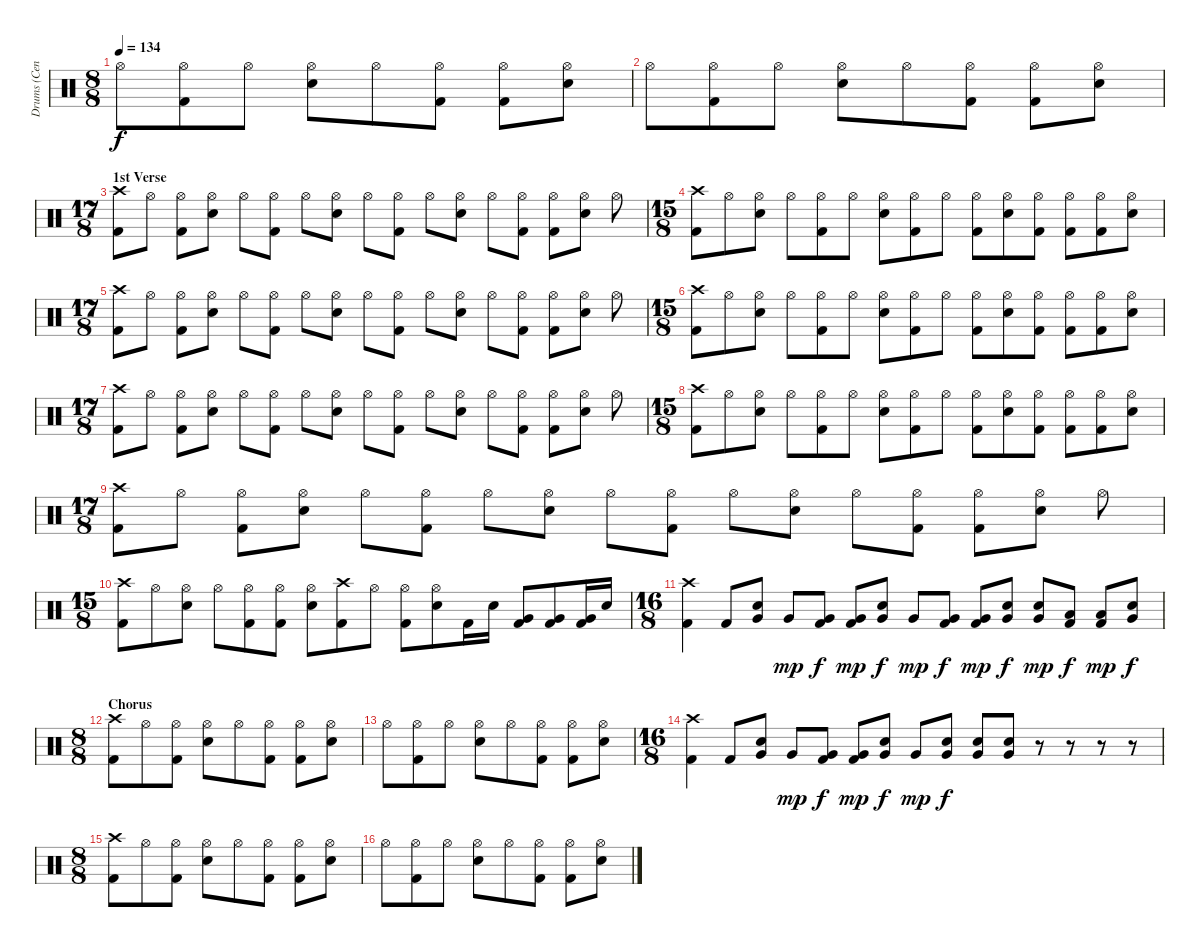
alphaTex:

\track ("Drums (Cenk)" "Drums (Cen") {instrument percussion}
\staff {score}
\articulation defaults
\ts (8 8)
\tempo 134
\clef neutral
\ks c "Hi-Hat (open)".8{dy f}
("Hi-Hat (open)" "Kick (hit) 2").8 "Hi-Hat (open)".8 ("Hi-Hat (open)" "Snare (hit) 2").8 "Hi-Hat (open)".8 ("Hi-Hat (open)" "Kick (hit) 2").8 ("Hi-Hat (open)" "Kick (hit) 2").8 ("Hi-Hat (open)" "Snare (hit) 2").8 |
"Hi-Hat (open)".8 ("Hi-Hat (open)" "Kick (hit) 2").8 "Hi-Hat (open)".8 ("Hi-Hat (open)" "Snare (hit) 2").8 "Hi-Hat (open)".8 ("Hi-Hat (open)" "Kick (hit) 2").8 ("Hi-Hat (open)" "Kick (hit) 2").8 ("Hi-Hat (open)" "Snare (hit) 2").8 |
\ts (17 8)
\section ("" "1st Verse")
("Crash high (hit)" "Kick (hit) 2").8 "Hi-Hat (open)".8 ("Hi-Hat (open)" "Kick (hit) 2").8 ("Hi-Hat (open)" "Snare (hit) 2").8 "Hi-Hat (open)".8 ("Hi-Hat (open)" "Kick (hit) 2").8 "Hi-Hat (open)".8 ("Hi-Hat (open)" "Snare (hit) 2").8 "Hi-Hat (open)".8 ("Hi-Hat (open)" "Kick (hit) 2").8 "Hi-Hat (open)".8 ("Hi-Hat (open)" "Snare (hit) 2").8 "Hi-Hat (open)".8 ("Hi-Hat (open)" "Kick (hit) 2").8 ("Hi-Hat (open)" "Kick (hit) 2").8 ("Hi-Hat (open)" "Snare (hit) 2").8 "Hi-Hat (open)".8 |
\ts (15 8)
("Crash high (hit)" "Kick (hit) 2").8 "Hi-Hat (open)".8 ("Hi-Hat (open)" "Snare (hit) 2").8 "Hi-Hat (open)".8 ("Hi-Hat (open)" "Kick (hit) 2").8 "Hi-Hat (open)".8 ("Hi-Hat (open)" "Snare (hit) 2").8 ("Hi-Hat (open)" "Kick (hit) 2").8 "Hi-Hat (open)".8 ("Hi-Hat (open)" "Kick (hit) 2").8 ("Hi-Hat (open)" "Snare (hit) 2").8 ("Hi-Hat (open)" "Kick (hit) 2").8 ("Hi-Hat (open)" "Kick (hit) 2").8 ("Hi-Hat (open)" "Kick (hit) 2").8 ("Hi-Hat (open)" "Snare (hit) 2").8 |
\ts (17 8)
("Crash high (hit)" "Kick (hit) 2").8 "Hi-Hat (open)".8 ("Hi-Hat (open)" "Kick (hit) 2").8 ("Hi-Hat (open)" "Snare (hit) 2").8 "Hi-Hat (open)".8 ("Hi-Hat (open)" "Kick (hit) 2").8 "Hi-Hat (open)".8 ("Hi-Hat (open)" "Snare (hit) 2").8 "Hi-Hat (open)".8 ("Hi-Hat (open)" "Kick (hit) 2").8 "Hi-Hat (open)".8 ("Hi-Hat (open)" "Snare (hit) 2").8 "Hi-Hat (open)".8 ("Hi-Hat (open)" "Kick (hit) 2").8 ("Hi-Hat (open)" "Kick (hit) 2").8 ("Hi-Hat (open)" "Snare (hit) 2").8 "Hi-Hat (open)".8 |
\ts (15 8)
("Crash high (hit)" "Kick (hit) 2").8 "Hi-Hat (open)".8 ("Hi-Hat (open)" "Snare (hit) 2").8 "Hi-Hat (open)".8 ("Hi-Hat (open)" "Kick (hit) 2").8 "Hi-Hat (open)".8 ("Hi-Hat (open)" "Snare (hit) 2").8 ("Hi-Hat (open)" "Kick (hit) 2").8 "Hi-Hat (open)".8 ("Hi-Hat (open)" "Kick (hit) 2").8 ("Hi-Hat (open)" "Snare (hit) 2").8 ("Hi-Hat (open)" "Kick (hit) 2").8 ("Hi-Hat (open)" "Kick (hit) 2").8 ("Hi-Hat (open)" "Kick (hit) 2").8 ("Hi-Hat (open)" "Snare (hit) 2").8 |
\ts (17 8)
("Crash high (hit)" "Kick (hit) 2").8 "Hi-Hat (open)".8 ("Hi-Hat (open)" "Kick (hit) 2").8 ("Hi-Hat (open)" "Snare (hit) 2").8 "Hi-Hat (open)".8 ("Hi-Hat (open)" "Kick (hit) 2").8 "Hi-Hat (open)".8 ("Hi-Hat (open)" "Snare (hit) 2").8 "Hi-Hat (open)".8 ("Hi-Hat (open)" "Kick (hit) 2").8 "Hi-Hat (open)".8 ("Hi-Hat (open)" "Snare (hit) 2").8 "Hi-Hat (open)".8 ("Hi-Hat (open)" "Kick (hit) 2").8 ("Hi-Hat (open)" "Kick (hit) 2").8 ("Hi-Hat (open)" "Snare (hit) 2").8 "Hi-Hat (open)".8 |
\ts (15 8)
("Crash high (hit)" "Kick (hit) 2").8 "Hi-Hat (open)".8 ("Hi-Hat (open)" "Snare (hit) 2").8 "Hi-Hat (open)".8 ("Hi-Hat (open)" "Kick (hit) 2").8 "Hi-Hat (open)".8 ("Hi-Hat (open)" "Snare (hit) 2").8 ("Hi-Hat (open)" "Kick (hit) 2").8 "Hi-Hat (open)".8 ("Hi-Hat (open)" "Kick (hit) 2").8 ("Hi-Hat (open)" "Snare (hit) 2").8 ("Hi-Hat (open)" "Kick (hit) 2").8 ("Hi-Hat (open)" "Kick (hit) 2").8 ("Hi-Hat (open)" "Kick (hit) 2").8 ("Hi-Hat (open)" "Snare (hit) 2").8 |
\ts (17 8)
("Crash high (hit)" "Kick (hit) 2").8 "Hi-Hat (open)".8 ("Hi-Hat (open)" "Kick (hit) 2").8 ("Hi-Hat (open)" "Snare (hit) 2").8 "Hi-Hat (open)".8 ("Hi-Hat (open)" "Kick (hit) 2").8 "Hi-Hat (open)".8 ("Hi-Hat (open)" "Snare (hit) 2").8 "Hi-Hat (open)".8 ("Hi-Hat (open)" "Kick (hit) 2").8 "Hi-Hat (open)".8 ("Hi-Hat (open)" "Snare (hit) 2").8 "Hi-Hat (open)".8 ("Hi-Hat (open)" "Kick (hit) 2").8 ("Hi-Hat (open)" "Kick (hit) 2").8 ("Hi-Hat (open)" "Snare (hit) 2").8 "Hi-Hat (open)".8 |
\ts (15 8)
("Crash high (hit)" "Kick (hit) 2").8 "Hi-Hat (open)".8 ("Hi-Hat (open)" "Snare (hit) 2").8 "Hi-Hat (open)".8 ("Hi-Hat (open)" "Kick (hit) 2").8 ("Hi-Hat (open)" "Kick (hit) 2").8 ("Hi-Hat (open)" "Snare (hit) 2").8 ("Crash high (hit)" "Kick (hit) 2").8 "Hi-Hat (open)".8 ("Hi-Hat (open)" "Kick (hit) 2").8 ("Hi-Hat (open)" "Snare (hit) 2").8 "Kick (hit) 2".16 "Snare (hit) 2".16 ("Very Low Tom (hit)" "Kick (hit) 2").8 ("Very Low Tom (hit)" "Kick (hit) 2").8 ("Very Low Tom (hit)" "Kick (hit) 2").16 "Snare (hit) 2".16 |
\ts (16 8)
("Crash high (hit)" "Kick (hit) 2").4 "Kick (hit) 2".8 ("Very Low Tom (hit)" "Snare (hit) 2").8 "Very Low Tom (hit)".8{dy mp} ("Very Low Tom (hit)" "Kick (hit) 2").8{dy f} ("Very Low Tom (hit)" "Kick (hit) 2").8{dy mp} ("Very Low Tom (hit)" "Snare (hit) 2").8{dy f} "Very Low Tom (hit)".8{dy mp} ("Very Low Tom (hit)" "Kick (hit) 2").8{dy f} ("Very Low Tom (hit)" "Kick (hit) 2").8{dy mp} ("Very Low Tom (hit)" "Snare (hit) 2").8{dy f} ("Very Low Tom (hit)" "Snare (hit) 2").8{dy mp} ("Low Tom (hit)" "Kick (hit) 2").8{dy f} ("Low Tom (hit)" "Kick (hit) 2").8{dy mp} ("Very Low Tom (hit)" "Snare (hit) 2").8{dy f} |
\ts (8 8)
\section ("" "Chorus")
("Crash high (hit)" "Kick (hit) 2").8 "Hi-Hat (open)".8 ("Hi-Hat (open)" "Kick (hit) 2").8 ("Hi-Hat (open)" "Snare (hit) 2").8 "Hi-Hat (open)".8 ("Hi-Hat (open)" "Kick (hit) 2").8 ("Hi-Hat (open)" "Kick (hit) 2").8 ("Hi-Hat (open)" "Snare (hit) 2").8 |
"Hi-Hat (open)".8 ("Hi-Hat (open)" "Kick (hit) 2").8 "Hi-Hat (open)".8 ("Hi-Hat (open)" "Snare (hit) 2").8 "Hi-Hat (open)".8 ("Hi-Hat (open)" "Kick (hit) 2").8 ("Hi-Hat (open)" "Kick (hit) 2").8 ("Hi-Hat (open)" "Snare (hit) 2").8 |
\ts (16 8)
("Crash high (hit)" "Kick (hit) 2").4 "Kick (hit) 2".8 ("Very Low Tom (hit)" "Snare (hit) 2").8 "Very Low Tom (hit)".8{dy mp} ("Very Low Tom (hit)" "Kick (hit) 2").8{dy f} ("Very Low Tom (hit)" "Kick (hit) 2").8{dy mp} ("Very Low Tom (hit)" "Snare (hit) 2").8{dy f} "Very Low Tom (hit)".8{dy mp} ("Very Low Tom (hit)" "Snare (hit) 2").8{dy f} ("Very Low Tom (hit)" "Snare (hit) 2").8 ("Very Low Tom (hit)" "Snare (hit) 2").8 r.8 r.8 r.8 r.8 |
\ts (8 8)
("Crash high (hit)" "Kick (hit) 2").8 "Hi-Hat (open)".8 ("Hi-Hat (open)" "Kick (hit) 2").8 ("Hi-Hat (open)" "Snare (hit) 2").8 "Hi-Hat (open)".8 ("Hi-Hat (open)" "Kick (hit) 2").8 ("Hi-Hat (open)" "Kick (hit) 2").8 ("Hi-Hat (open)" "Snare (hit) 2").8 |
"Hi-Hat (open)".8 ("Hi-Hat (open)" "Kick (hit) 2").8 "Hi-Hat (open)".8 ("Hi-Hat (open)" "Snare (hit) 2").8 "Hi-Hat (open)".8 ("Hi-Hat (open)" "Kick (hit) 2").8 ("Hi-Hat (open)" "Kick (hit) 2").8 ("Hi-Hat (open)" "Snare (hit) 2").8
